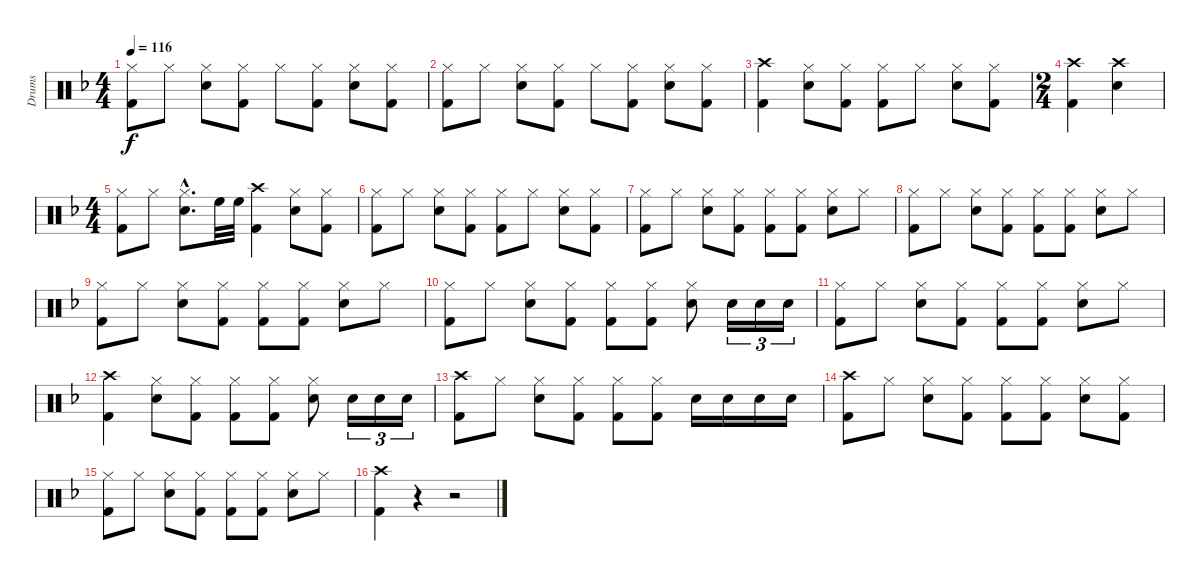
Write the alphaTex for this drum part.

\track ("Drums" "Drums") {instrument percussion}
\staff {score}
\articulation defaults
\ts (4 4)
\tempo 116
\clef neutral
\ks dminor
("Hi-Hat (closed)" "Kick (hit) 2").8{dy f} "Hi-Hat (closed)".8 ("Hi-Hat (closed)" "Electric Snare (hit)").8 ("Hi-Hat (closed)" "Kick (hit) 2").8 "Hi-Hat (closed)".8 ("Hi-Hat (closed)" "Kick (hit) 2").8 ("Hi-Hat (closed)" "Electric Snare (hit)").8 ("Hi-Hat (closed)" "Kick (hit) 2").8 |
("Hi-Hat (closed)" "Kick (hit) 2").8 "Hi-Hat (closed)".8 ("Hi-Hat (closed)" "Electric Snare (hit)").8 ("Hi-Hat (closed)" "Kick (hit) 2").8 "Hi-Hat (closed)".8 ("Hi-Hat (closed)" "Kick (hit) 2").8 ("Hi-Hat (closed)" "Electric Snare (hit)").8 ("Hi-Hat (closed)" "Kick (hit) 2").8 |
("Crash high (hit)" "Kick (hit) 2").4 ("Hi-Hat (closed)" "Electric Snare (hit)").8 ("Hi-Hat (closed)" "Kick (hit) 2").8 ("Hi-Hat (closed)" "Kick (hit) 2").8 "Hi-Hat (closed)".8 ("Hi-Hat (closed)" "Electric Snare (hit)").8 ("Hi-Hat (closed)" "Kick (hit) 2").8 |
\ts (2 4)
("Crash high (hit)" "Kick (hit) 2").4 ("Crash high (hit)" "Electric Snare (hit)").4 |
\ts (4 4)
("Hi-Hat (closed)" "Kick (hit) 2").8 "Hi-Hat (closed)".8 ("Hi-Hat (closed)"{hac} "Electric Snare (hit)"{hac}).8{d} "High Floor Tom (hit)".32 "High Floor Tom (hit)".32 ("Crash high (hit)" "Kick (hit) 2").4 ("Hi-Hat (closed)" "Electric Snare (hit)").8 ("Hi-Hat (closed)" "Kick (hit) 2").8 |
("Hi-Hat (closed)" "Kick (hit) 2").8 "Hi-Hat (closed)".8 ("Hi-Hat (closed)" "Electric Snare (hit)").8 ("Hi-Hat (closed)" "Kick (hit) 2").8 ("Hi-Hat (closed)" "Kick (hit) 2").8 "Hi-Hat (closed)".8 ("Hi-Hat (closed)" "Electric Snare (hit)").8 ("Hi-Hat (closed)" "Kick (hit) 2").8 |
("Hi-Hat (closed)" "Kick (hit) 2").8 "Hi-Hat (closed)".8 ("Hi-Hat (closed)" "Electric Snare (hit)").8 ("Hi-Hat (closed)" "Kick (hit) 2").8 ("Hi-Hat (closed)" "Kick (hit) 2").8 ("Hi-Hat (closed)" "Kick (hit) 2").8 ("Hi-Hat (closed)" "Electric Snare (hit)").8 "Hi-Hat (closed)".8 |
("Hi-Hat (closed)" "Kick (hit) 2").8 "Hi-Hat (closed)".8 ("Hi-Hat (closed)" "Electric Snare (hit)").8 ("Hi-Hat (closed)" "Kick (hit) 2").8 ("Hi-Hat (closed)" "Kick (hit) 2").8 ("Hi-Hat (closed)" "Kick (hit) 2").8 ("Hi-Hat (closed)" "Electric Snare (hit)").8 "Hi-Hat (closed)".8 |
("Hi-Hat (closed)" "Kick (hit) 2").8 "Hi-Hat (closed)".8 ("Hi-Hat (closed)" "Electric Snare (hit)").8 ("Hi-Hat (closed)" "Kick (hit) 2").8 ("Hi-Hat (closed)" "Kick (hit) 2").8 ("Hi-Hat (closed)" "Kick (hit) 2").8 ("Hi-Hat (closed)" "Electric Snare (hit)").8 "Hi-Hat (closed)".8 |
("Hi-Hat (closed)" "Kick (hit) 2").8 "Hi-Hat (closed)".8 ("Hi-Hat (closed)" "Electric Snare (hit)").8 ("Hi-Hat (closed)" "Kick (hit) 2").8 ("Hi-Hat (closed)" "Kick (hit) 2").8 ("Hi-Hat (closed)" "Kick (hit) 2").8 ("Hi-Hat (closed)" "Electric Snare (hit)").8 "Electric Snare (hit)".16{tu (3 2)} "Electric Snare (hit)".16{tu (3 2)} "Electric Snare (hit)".16{tu (3 2)} |
("Hi-Hat (closed)" "Kick (hit) 2").8 "Hi-Hat (closed)".8 ("Hi-Hat (closed)" "Electric Snare (hit)").8 ("Hi-Hat (closed)" "Kick (hit) 2").8 ("Hi-Hat (closed)" "Kick (hit) 2").8 ("Hi-Hat (closed)" "Kick (hit) 2").8 ("Hi-Hat (closed)" "Electric Snare (hit)").8 "Hi-Hat (closed)".8 |
("Crash high (hit)" "Kick (hit) 2").4 ("Hi-Hat (closed)" "Electric Snare (hit)").8 ("Hi-Hat (closed)" "Kick (hit) 2").8 ("Hi-Hat (closed)" "Kick (hit) 2").8 ("Hi-Hat (closed)" "Kick (hit) 2").8 ("Hi-Hat (closed)" "Electric Snare (hit)").8 "Electric Snare (hit)".16{tu (3 2)} "Electric Snare (hit)".16{tu (3 2)} "Electric Snare (hit)".16{tu (3 2)} |
("Crash high (hit)" "Kick (hit) 2").8 "Hi-Hat (closed)".8 ("Hi-Hat (closed)" "Electric Snare (hit)").8 ("Hi-Hat (closed)" "Kick (hit) 2").8 ("Hi-Hat (closed)" "Kick (hit) 2").8 ("Hi-Hat (closed)" "Kick (hit) 2").8 "Electric Snare (hit)".16 "Electric Snare (hit)".16 "Electric Snare (hit)".16 "Electric Snare (hit)".16 |
("Crash high (hit)" "Kick (hit) 2").8 "Hi-Hat (closed)".8 ("Hi-Hat (closed)" "Electric Snare (hit)").8 ("Hi-Hat (closed)" "Kick (hit) 2").8 ("Hi-Hat (closed)" "Kick (hit) 2").8 ("Hi-Hat (closed)" "Kick (hit) 2").8 ("Hi-Hat (closed)" "Electric Snare (hit)").8 ("Hi-Hat (closed)" "Kick (hit) 2").8 |
("Hi-Hat (closed)" "Kick (hit) 2").8 "Hi-Hat (closed)".8 ("Hi-Hat (closed)" "Electric Snare (hit)").8 ("Hi-Hat (closed)" "Kick (hit) 2").8 ("Hi-Hat (closed)" "Kick (hit) 2").8 ("Hi-Hat (closed)" "Kick (hit) 2").8 ("Hi-Hat (closed)" "Electric Snare (hit)").8 "Hi-Hat (closed)".8 |
("Crash high (hit)" "Kick (hit) 2").4 r.4 r.2
